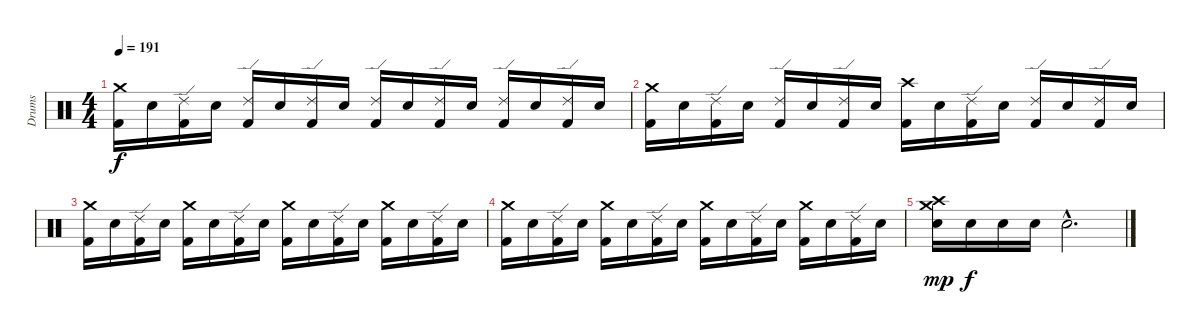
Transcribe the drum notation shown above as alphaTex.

\track ("Drums" "Drums") {instrument percussion}
\staff {score}
\articulation defaults
\ts (4 4)
\tempo 191
\clef neutral
\ks c
("Crash medium (hit)" "Kick (hit) 2").16{dy f} "Electric Snare (hit)".16 ("Ride (edge) 2" "Kick (hit) 2").16 "Electric Snare (hit)".16 ("Ride (edge) 2" "Kick (hit) 2").16 "Electric Snare (hit)".16 ("Ride (edge) 2" "Kick (hit) 2").16 "Electric Snare (hit)".16 ("Ride (edge) 2" "Kick (hit) 2").16 "Electric Snare (hit)".16 ("Ride (edge) 2" "Kick (hit) 2").16 "Electric Snare (hit)".16 ("Ride (edge) 2" "Kick (hit) 2").16 "Electric Snare (hit)".16 ("Ride (edge) 2" "Kick (hit) 2").16 "Electric Snare (hit)".16 |
("Crash medium (hit)" "Kick (hit) 2").16 "Electric Snare (hit)".16 ("Ride (edge) 2" "Kick (hit) 2").16 "Electric Snare (hit)".16 ("Ride (edge) 2" "Kick (hit) 2").16 "Electric Snare (hit)".16 ("Ride (edge) 2" "Kick (hit) 2").16 "Electric Snare (hit)".16 ("Crash high (hit)" "Kick (hit) 2").16 "Electric Snare (hit)".16 ("Ride (edge) 2" "Kick (hit) 2").16 "Electric Snare (hit)".16 ("Ride (edge) 2" "Kick (hit) 2").16 "Electric Snare (hit)".16 ("Ride (edge) 2" "Kick (hit) 2").16 "Electric Snare (hit)".16 |
("Crash medium (hit)" "Kick (hit) 2").16 "Electric Snare (hit)".16 ("Ride (edge) 2" "Kick (hit) 2").16 "Electric Snare (hit)".16 ("Crash medium (hit)" "Kick (hit) 2").16 "Electric Snare (hit)".16 ("Ride (edge) 2" "Kick (hit) 2").16 "Electric Snare (hit)".16 ("Crash medium (hit)" "Kick (hit) 2").16 "Electric Snare (hit)".16 ("Ride (edge) 2" "Kick (hit) 2").16 "Electric Snare (hit)".16 ("Crash medium (hit)" "Kick (hit) 2").16 "Electric Snare (hit)".16 ("Ride (edge) 2" "Kick (hit) 2").16 "Electric Snare (hit)".16 |
("Crash medium (hit)" "Kick (hit) 2").16 "Electric Snare (hit)".16 ("Ride (edge) 2" "Kick (hit) 2").16 "Electric Snare (hit)".16 ("Crash medium (hit)" "Kick (hit) 2").16 "Electric Snare (hit)".16 ("Ride (edge) 2" "Kick (hit) 2").16 "Electric Snare (hit)".16 ("Crash medium (hit)" "Kick (hit) 2").16 "Electric Snare (hit)".16 ("Ride (edge) 2" "Kick (hit) 2").16 "Electric Snare (hit)".16 ("Crash medium (hit)" "Kick (hit) 2").16 "Electric Snare (hit)".16 ("Ride (edge) 2" "Kick (hit) 2").16 "Electric Snare (hit)".16 |
("Crash medium (hit)" "Crash high (hit)" "Electric Snare (hit)").16{dy mp} "Electric Snare (hit)".16{dy f} "Electric Snare (hit)".16 "Electric Snare (hit)".16 "Electric Snare (hit)"{hac}.2{d}
